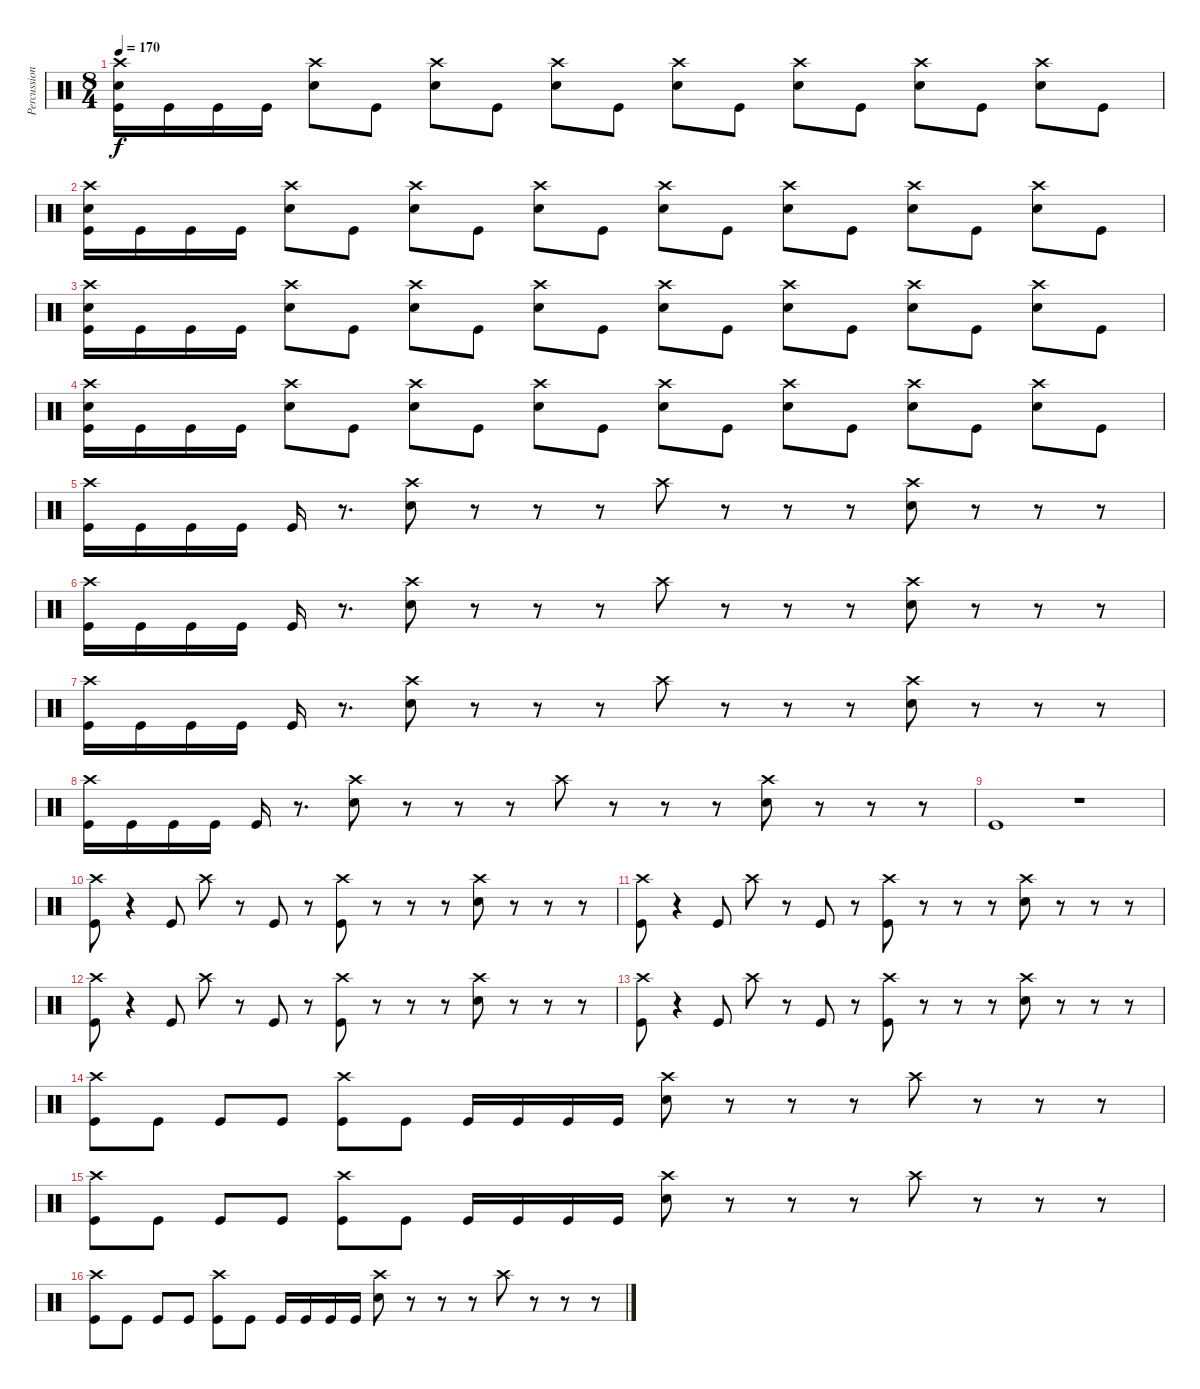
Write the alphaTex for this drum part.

\track ("Percussion" "Percussion") {instrument percussion}
\staff {score}
\articulation defaults
\ts (8 4)
\tempo 170
\clef neutral
\ks c
("Crash high (hit)" "Snare (hit) 2" "Kick (hit)").16{dy f} "Kick (hit)".16 "Kick (hit)".16 "Kick (hit)".16 ("Crash high (hit)" "Snare (hit) 2").8 "Kick (hit)".8 ("Crash high (hit)" "Snare (hit) 2").8 "Kick (hit)".8 ("Crash high (hit)" "Snare (hit) 2").8 "Kick (hit)".8 ("Crash high (hit)" "Snare (hit) 2").8 "Kick (hit)".8 ("Crash high (hit)" "Snare (hit) 2").8 "Kick (hit)".8 ("Crash high (hit)" "Snare (hit) 2").8 "Kick (hit)".8 ("Crash high (hit)" "Snare (hit) 2").8 "Kick (hit)".8 |
("Crash high (hit)" "Snare (hit) 2" "Kick (hit)").16 "Kick (hit)".16 "Kick (hit)".16 "Kick (hit)".16 ("Crash high (hit)" "Snare (hit) 2").8 "Kick (hit)".8 ("Crash high (hit)" "Snare (hit) 2").8 "Kick (hit)".8 ("Crash high (hit)" "Snare (hit) 2").8 "Kick (hit)".8 ("Crash high (hit)" "Snare (hit) 2").8 "Kick (hit)".8 ("Crash high (hit)" "Snare (hit) 2").8 "Kick (hit)".8 ("Crash high (hit)" "Snare (hit) 2").8 "Kick (hit)".8 ("Crash high (hit)" "Snare (hit) 2").8 "Kick (hit)".8 |
("Crash high (hit)" "Snare (hit) 2" "Kick (hit)").16 "Kick (hit)".16 "Kick (hit)".16 "Kick (hit)".16 ("Crash high (hit)" "Snare (hit) 2").8 "Kick (hit)".8 ("Crash high (hit)" "Snare (hit) 2").8 "Kick (hit)".8 ("Crash high (hit)" "Snare (hit) 2").8 "Kick (hit)".8 ("Crash high (hit)" "Snare (hit) 2").8 "Kick (hit)".8 ("Crash high (hit)" "Snare (hit) 2").8 "Kick (hit)".8 ("Crash high (hit)" "Snare (hit) 2").8 "Kick (hit)".8 ("Crash high (hit)" "Snare (hit) 2").8 "Kick (hit)".8 |
("Crash high (hit)" "Snare (hit) 2" "Kick (hit)").16 "Kick (hit)".16 "Kick (hit)".16 "Kick (hit)".16 ("Crash high (hit)" "Snare (hit) 2").8 "Kick (hit)".8 ("Crash high (hit)" "Snare (hit) 2").8 "Kick (hit)".8 ("Crash high (hit)" "Snare (hit) 2").8 "Kick (hit)".8 ("Crash high (hit)" "Snare (hit) 2").8 "Kick (hit)".8 ("Crash high (hit)" "Snare (hit) 2").8 "Kick (hit)".8 ("Crash high (hit)" "Snare (hit) 2").8 "Kick (hit)".8 ("Crash high (hit)" "Snare (hit) 2").8 "Kick (hit)".8 |
("Crash high (hit)" "Kick (hit)").16 "Kick (hit)".16 "Kick (hit)".16 "Kick (hit)".16 "Kick (hit)".16 r.8{d} ("Crash high (hit)" "Snare (hit) 2").8 r.8 r.8 r.8 "Crash high (hit)".8 r.8 r.8 r.8 ("Crash high (hit)" "Snare (hit) 2").8 r.8 r.8 r.8 |
("Crash high (hit)" "Kick (hit)").16 "Kick (hit)".16 "Kick (hit)".16 "Kick (hit)".16 "Kick (hit)".16 r.8{d} ("Crash high (hit)" "Snare (hit) 2").8 r.8 r.8 r.8 "Crash high (hit)".8 r.8 r.8 r.8 ("Crash high (hit)" "Snare (hit) 2").8 r.8 r.8 r.8 |
("Crash high (hit)" "Kick (hit)").16 "Kick (hit)".16 "Kick (hit)".16 "Kick (hit)".16 "Kick (hit)".16 r.8{d} ("Crash high (hit)" "Snare (hit) 2").8 r.8 r.8 r.8 "Crash high (hit)".8 r.8 r.8 r.8 ("Crash high (hit)" "Snare (hit) 2").8 r.8 r.8 r.8 |
("Crash high (hit)" "Kick (hit)").16 "Kick (hit)".16 "Kick (hit)".16 "Kick (hit)".16 "Kick (hit)".16 r.8{d} ("Crash high (hit)" "Snare (hit) 2").8 r.8 r.8 r.8 "Crash high (hit)".8 r.8 r.8 r.8 ("Crash high (hit)" "Snare (hit) 2").8 r.8 r.8 r.8 |
"Kick (hit)".1 r.1 |
("Crash high (hit)" "Kick (hit)").8 r.4 "Kick (hit)".8 "Crash high (hit)".8 r.8 "Kick (hit)".8 r.8 ("Crash high (hit)" "Kick (hit)").8 r.8 r.8 r.8 ("Crash high (hit)" "Snare (hit) 2").8 r.8 r.8 r.8 |
("Crash high (hit)" "Kick (hit)").8 r.4 "Kick (hit)".8 "Crash high (hit)".8 r.8 "Kick (hit)".8 r.8 ("Crash high (hit)" "Kick (hit)").8 r.8 r.8 r.8 ("Crash high (hit)" "Snare (hit) 2").8 r.8 r.8 r.8 |
("Crash high (hit)" "Kick (hit)").8 r.4 "Kick (hit)".8 "Crash high (hit)".8 r.8 "Kick (hit)".8 r.8 ("Crash high (hit)" "Kick (hit)").8 r.8 r.8 r.8 ("Crash high (hit)" "Snare (hit) 2").8 r.8 r.8 r.8 |
("Crash high (hit)" "Kick (hit)").8 r.4 "Kick (hit)".8 "Crash high (hit)".8 r.8 "Kick (hit)".8 r.8 ("Crash high (hit)" "Kick (hit)").8 r.8 r.8 r.8 ("Crash high (hit)" "Snare (hit) 2").8 r.8 r.8 r.8 |
("Crash high (hit)" "Kick (hit)").8 "Kick (hit)".8 "Kick (hit)".8 "Kick (hit)".8 ("Crash high (hit)" "Kick (hit)").8 "Kick (hit)".8 "Kick (hit)".16 "Kick (hit)".16 "Kick (hit)".16 "Kick (hit)".16 ("Crash high (hit)" "Snare (hit) 2").8 r.8 r.8 r.8 "Crash high (hit)".8 r.8 r.8 r.8 |
("Crash high (hit)" "Kick (hit)").8 "Kick (hit)".8 "Kick (hit)".8 "Kick (hit)".8 ("Crash high (hit)" "Kick (hit)").8 "Kick (hit)".8 "Kick (hit)".16 "Kick (hit)".16 "Kick (hit)".16 "Kick (hit)".16 ("Crash high (hit)" "Snare (hit) 2").8 r.8 r.8 r.8 "Crash high (hit)".8 r.8 r.8 r.8 |
("Crash high (hit)" "Kick (hit)").8 "Kick (hit)".8 "Kick (hit)".8 "Kick (hit)".8 ("Crash high (hit)" "Kick (hit)").8 "Kick (hit)".8 "Kick (hit)".16 "Kick (hit)".16 "Kick (hit)".16 "Kick (hit)".16 ("Crash high (hit)" "Snare (hit) 2").8 r.8 r.8 r.8 "Crash high (hit)".8 r.8 r.8 r.8
